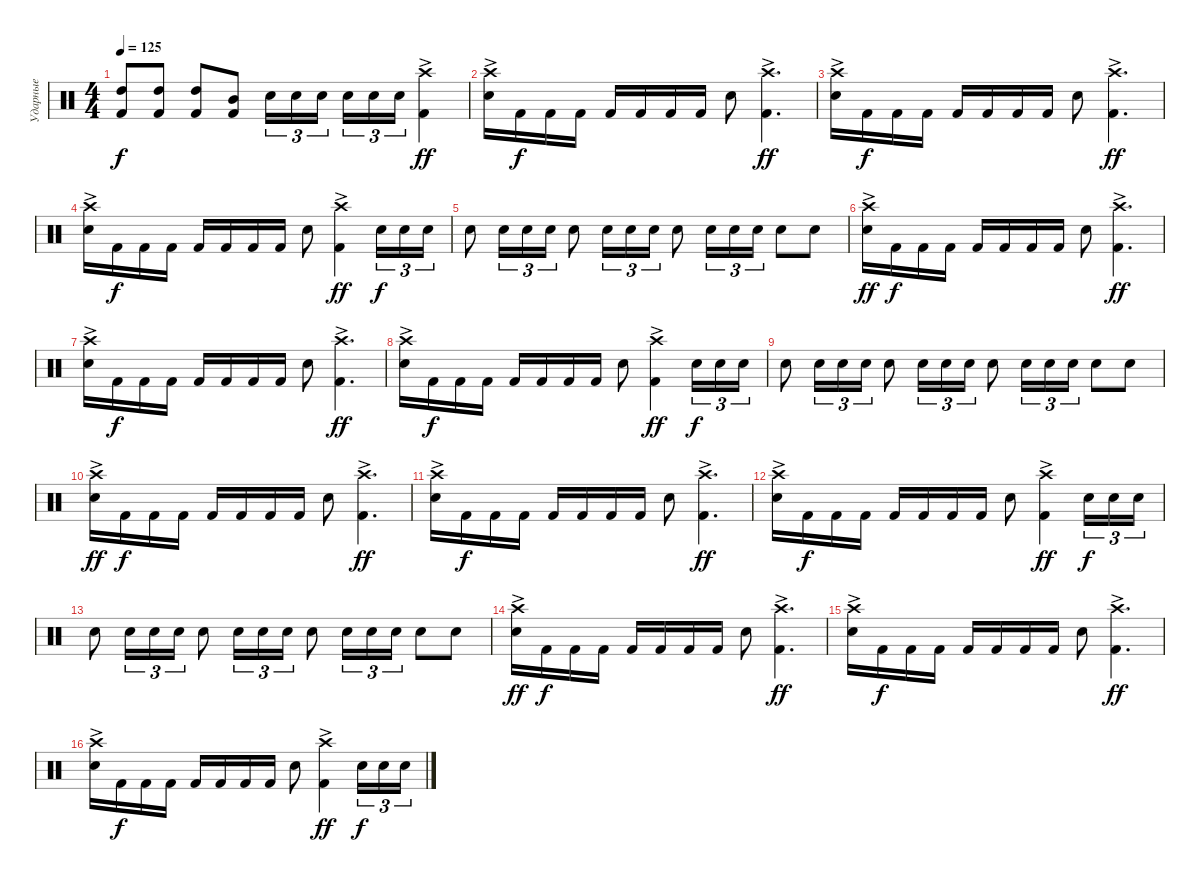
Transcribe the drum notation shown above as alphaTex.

\track ("Ударные" "Ударные") {instrument percussion}
\staff
\articulation defaults
\ts (4 4)
\tempo 125
\clef neutral
\ks c
("Kick (hit) 2" "High Tom (hit)").8{dy f} ("Kick (hit) 2" "High Tom (hit)").8 ("Kick (hit) 2" "High Tom (hit)").8 ("Kick (hit) 2" "Mid Tom (hit)").8 "Snare (hit) 2".16{tu (3 2)} "Snare (hit) 2".16{tu (3 2)} "Snare (hit) 2".16{tu (3 2) beam splitsecondary} "Snare (hit) 2".16{tu (3 2)} "Snare (hit) 2".16{tu (3 2)} "Snare (hit) 2".16{tu (3 2)} ("Kick (hit) 2" "Crash high (hit)"{ac}).4{dy ff} |
("Snare (hit) 2" "Crash high (hit)"{ac}).16 "Kick (hit) 2".16{dy f} "Kick (hit) 2".16 "Kick (hit) 2".16 "Kick (hit) 2".16 "Kick (hit) 2".16 "Kick (hit) 2".16 "Kick (hit) 2".16 "Snare (hit) 2".8 ("Kick (hit) 2" "Crash high (hit)"{ac}).4{d dy ff} |
("Snare (hit) 2" "Crash high (hit)"{ac}).16 "Kick (hit) 2".16{dy f} "Kick (hit) 2".16 "Kick (hit) 2".16 "Kick (hit) 2".16 "Kick (hit) 2".16 "Kick (hit) 2".16 "Kick (hit) 2".16 "Snare (hit) 2".8 ("Kick (hit) 2" "Crash high (hit)"{ac}).4{d dy ff} |
("Snare (hit) 2" "Crash high (hit)"{ac}).16 "Kick (hit) 2".16{dy f} "Kick (hit) 2".16 "Kick (hit) 2".16 "Kick (hit) 2".16 "Kick (hit) 2".16 "Kick (hit) 2".16 "Kick (hit) 2".16 "Snare (hit) 2".8 ("Kick (hit) 2" "Crash high (hit)"{ac}).4{dy ff} "Snare (hit) 2".16{tu (3 2) dy f} "Snare (hit) 2".16{tu (3 2)} "Snare (hit) 2".16{tu (3 2)} |
"Snare (hit) 2".8 "Snare (hit) 2".16{tu (3 2)} "Snare (hit) 2".16{tu (3 2)} "Snare (hit) 2".16{tu (3 2)} "Snare (hit) 2".8 "Snare (hit) 2".16{tu (3 2)} "Snare (hit) 2".16{tu (3 2)} "Snare (hit) 2".16{tu (3 2)} "Snare (hit) 2".8 "Snare (hit) 2".16{tu (3 2)} "Snare (hit) 2".16{tu (3 2)} "Snare (hit) 2".16{tu (3 2)} "Snare (hit) 2".8 "Snare (hit) 2".8 |
("Snare (hit) 2" "Crash high (hit)"{ac}).16{dy ff} "Kick (hit) 2".16{dy f} "Kick (hit) 2".16 "Kick (hit) 2".16 "Kick (hit) 2".16 "Kick (hit) 2".16 "Kick (hit) 2".16 "Kick (hit) 2".16 "Snare (hit) 2".8 ("Kick (hit) 2" "Crash high (hit)"{ac}).4{d dy ff} |
("Snare (hit) 2" "Crash high (hit)"{ac}).16 "Kick (hit) 2".16{dy f} "Kick (hit) 2".16 "Kick (hit) 2".16 "Kick (hit) 2".16 "Kick (hit) 2".16 "Kick (hit) 2".16 "Kick (hit) 2".16 "Snare (hit) 2".8 ("Kick (hit) 2" "Crash high (hit)"{ac}).4{d dy ff} |
("Snare (hit) 2" "Crash high (hit)"{ac}).16 "Kick (hit) 2".16{dy f} "Kick (hit) 2".16 "Kick (hit) 2".16 "Kick (hit) 2".16 "Kick (hit) 2".16 "Kick (hit) 2".16 "Kick (hit) 2".16 "Snare (hit) 2".8 ("Kick (hit) 2" "Crash high (hit)"{ac}).4{dy ff} "Snare (hit) 2".16{tu (3 2) dy f} "Snare (hit) 2".16{tu (3 2)} "Snare (hit) 2".16{tu (3 2)} |
"Snare (hit) 2".8 "Snare (hit) 2".16{tu (3 2)} "Snare (hit) 2".16{tu (3 2)} "Snare (hit) 2".16{tu (3 2)} "Snare (hit) 2".8 "Snare (hit) 2".16{tu (3 2)} "Snare (hit) 2".16{tu (3 2)} "Snare (hit) 2".16{tu (3 2)} "Snare (hit) 2".8 "Snare (hit) 2".16{tu (3 2)} "Snare (hit) 2".16{tu (3 2)} "Snare (hit) 2".16{tu (3 2)} "Snare (hit) 2".8 "Snare (hit) 2".8 |
("Snare (hit) 2" "Crash high (hit)"{ac}).16{dy ff} "Kick (hit) 2".16{dy f} "Kick (hit) 2".16 "Kick (hit) 2".16 "Kick (hit) 2".16 "Kick (hit) 2".16 "Kick (hit) 2".16 "Kick (hit) 2".16 "Snare (hit) 2".8 ("Kick (hit) 2" "Crash high (hit)"{ac}).4{d dy ff} |
("Snare (hit) 2" "Crash high (hit)"{ac}).16 "Kick (hit) 2".16{dy f} "Kick (hit) 2".16 "Kick (hit) 2".16 "Kick (hit) 2".16 "Kick (hit) 2".16 "Kick (hit) 2".16 "Kick (hit) 2".16 "Snare (hit) 2".8 ("Kick (hit) 2" "Crash high (hit)"{ac}).4{d dy ff} |
("Snare (hit) 2" "Crash high (hit)"{ac}).16 "Kick (hit) 2".16{dy f} "Kick (hit) 2".16 "Kick (hit) 2".16 "Kick (hit) 2".16 "Kick (hit) 2".16 "Kick (hit) 2".16 "Kick (hit) 2".16 "Snare (hit) 2".8 ("Kick (hit) 2" "Crash high (hit)"{ac}).4{dy ff} "Snare (hit) 2".16{tu (3 2) dy f} "Snare (hit) 2".16{tu (3 2)} "Snare (hit) 2".16{tu (3 2)} |
"Snare (hit) 2".8 "Snare (hit) 2".16{tu (3 2)} "Snare (hit) 2".16{tu (3 2)} "Snare (hit) 2".16{tu (3 2)} "Snare (hit) 2".8 "Snare (hit) 2".16{tu (3 2)} "Snare (hit) 2".16{tu (3 2)} "Snare (hit) 2".16{tu (3 2)} "Snare (hit) 2".8 "Snare (hit) 2".16{tu (3 2)} "Snare (hit) 2".16{tu (3 2)} "Snare (hit) 2".16{tu (3 2)} "Snare (hit) 2".8 "Snare (hit) 2".8 |
("Snare (hit) 2" "Crash high (hit)"{ac}).16{dy ff} "Kick (hit) 2".16{dy f} "Kick (hit) 2".16 "Kick (hit) 2".16 "Kick (hit) 2".16 "Kick (hit) 2".16 "Kick (hit) 2".16 "Kick (hit) 2".16 "Snare (hit) 2".8 ("Kick (hit) 2" "Crash high (hit)"{ac}).4{d dy ff} |
("Snare (hit) 2" "Crash high (hit)"{ac}).16 "Kick (hit) 2".16{dy f} "Kick (hit) 2".16 "Kick (hit) 2".16 "Kick (hit) 2".16 "Kick (hit) 2".16 "Kick (hit) 2".16 "Kick (hit) 2".16 "Snare (hit) 2".8 ("Kick (hit) 2" "Crash high (hit)"{ac}).4{d dy ff} |
("Snare (hit) 2" "Crash high (hit)"{ac}).16 "Kick (hit) 2".16{dy f} "Kick (hit) 2".16 "Kick (hit) 2".16 "Kick (hit) 2".16 "Kick (hit) 2".16 "Kick (hit) 2".16 "Kick (hit) 2".16 "Snare (hit) 2".8 ("Kick (hit) 2" "Crash high (hit)"{ac}).4{dy ff} "Snare (hit) 2".16{tu (3 2) dy f} "Snare (hit) 2".16{tu (3 2)} "Snare (hit) 2".16{tu (3 2)}
